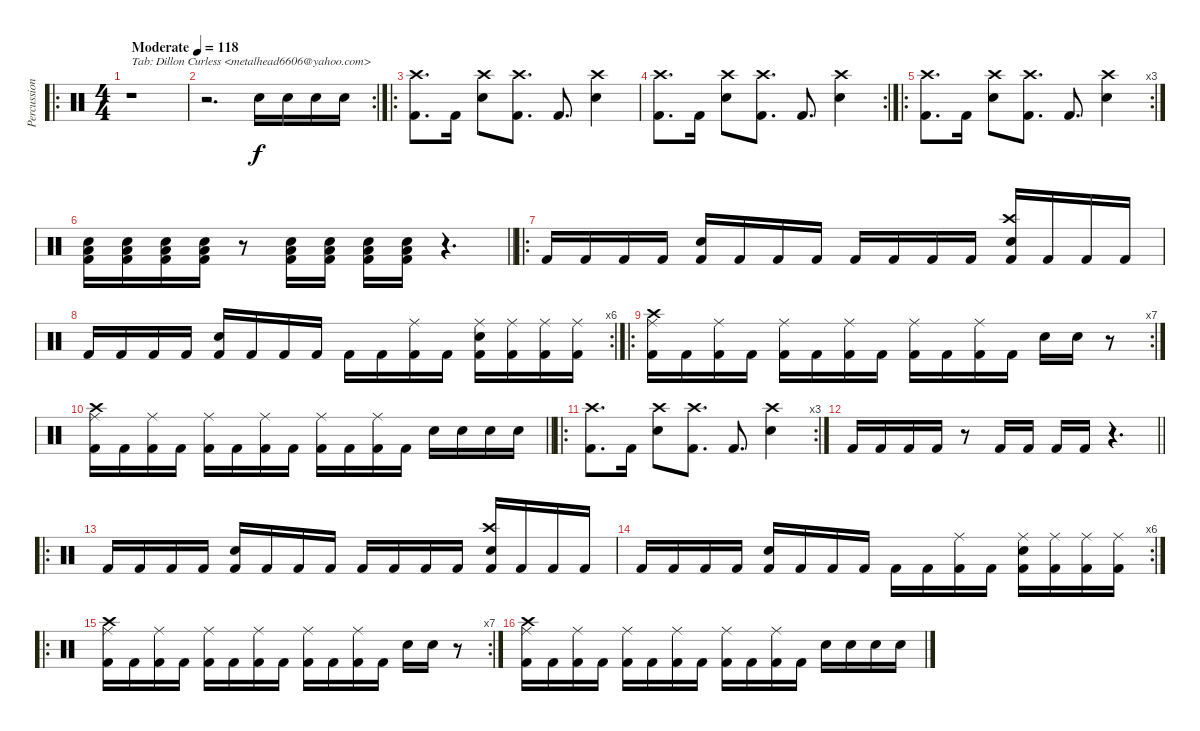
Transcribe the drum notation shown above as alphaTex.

\track ("Percussion" "Percussion") {instrument percussion}
\staff {score}
\articulation defaults
\ro
\ts (4 4)
\tempo (118 "Moderate")
\clef neutral
\ks c
r.1{txt "Tab: Dillon Curless <metalhead6606@yahoo.com>" dy f} |
\rc 2
r.2{d} "Snare (hit) 2".16 "Snare (hit) 2".16 "Snare (hit) 2".16 "Snare (hit) 2".16 |
\ro
("Crash high (hit)" "Kick (hit) 2").8{d} "Kick (hit) 2".16 ("Crash high (hit)" "Snare (hit) 2").8 ("Crash high (hit)" "Kick (hit) 2").8{d} "Kick (hit) 2".8{d} ("Crash high (hit)" "Snare (hit) 2").4 |
\rc 2
("Crash high (hit)" "Kick (hit) 2").8{d} "Kick (hit) 2".16 ("Crash high (hit)" "Snare (hit) 2").8 ("Crash high (hit)" "Kick (hit) 2").8{d} "Kick (hit) 2".8{d} ("Crash high (hit)" "Snare (hit) 2").4 |
\ro
\rc 3
("Crash high (hit)" "Kick (hit) 2").8{d} "Kick (hit) 2".16 ("Crash high (hit)" "Snare (hit) 2").8 ("Crash high (hit)" "Kick (hit) 2").8{d} "Kick (hit) 2".8{d} ("Crash high (hit)" "Snare (hit) 2").4 |
\barLineRight lightlight
("Snare (hit) 2" "Low Tom (hit)" "Kick (hit) 2").16 ("Snare (hit) 2" "Low Tom (hit)" "Kick (hit) 2").16 ("Snare (hit) 2" "Low Tom (hit)" "Kick (hit) 2").16 ("Snare (hit) 2" "Low Tom (hit)" "Kick (hit) 2").16 r.8 ("Snare (hit) 2" "Low Tom (hit)" "Kick (hit) 2").16 ("Snare (hit) 2" "Low Tom (hit)" "Kick (hit) 2").16 ("Snare (hit) 2" "Low Tom (hit)" "Kick (hit) 2").16 ("Snare (hit) 2" "Low Tom (hit)" "Kick (hit) 2").16 r.4{d} |
\ro "Kick (hit) 2".16 "Kick (hit) 2".16 "Kick (hit) 2".16 "Kick (hit) 2".16
("Snare (hit) 2" "Kick (hit) 2").16 "Kick (hit) 2".16 "Kick (hit) 2".16 "Kick (hit) 2".16 "Kick (hit) 2".16 "Kick (hit) 2".16 "Kick (hit) 2".16 "Kick (hit) 2".16 ("Crash high (hit)" "Snare (hit) 2" "Kick (hit) 2").16 "Kick (hit) 2".16 "Kick (hit) 2".16 "Kick (hit) 2".16 |
\rc 6 "Kick (hit) 2".16 "Kick (hit) 2".16 "Kick (hit) 2".16 "Kick (hit) 2".16
("Snare (hit) 2" "Kick (hit) 2").16 "Kick (hit) 2".16 "Kick (hit) 2".16 "Kick (hit) 2".16 "Kick (hit) 2".16 "Kick (hit) 2".16 ("Ride (middle)" "Kick (hit) 2").16 "Kick (hit) 2".16 ("Ride (middle)" "Snare (hit) 2" "Kick (hit) 2").16 ("Ride (middle)" "Kick (hit) 2").16 ("Ride (middle)" "Kick (hit) 2").16 ("Ride (middle)" "Kick (hit) 2").16 |
\ro
\rc 7
("Crash high (hit)" "Ride (middle)" "Kick (hit) 2").16 "Kick (hit) 2".16 ("Ride (middle)" "Kick (hit) 2").16 "Kick (hit) 2".16 ("Ride (middle)" "Kick (hit) 2").16 "Kick (hit) 2".16 ("Ride (middle)" "Kick (hit) 2").16 "Kick (hit) 2".16 ("Ride (middle)" "Kick (hit) 2").16 "Kick (hit) 2".16 ("Ride (middle)" "Kick (hit) 2").16 "Kick (hit) 2".16 "Snare (hit) 2".16 "Snare (hit) 2".16 r.8 |
\barLineRight lightlight
("Crash high (hit)" "Ride (middle)" "Kick (hit) 2").16 "Kick (hit) 2".16 ("Ride (middle)" "Kick (hit) 2").16 "Kick (hit) 2".16 ("Ride (middle)" "Kick (hit) 2").16 "Kick (hit) 2".16 ("Ride (middle)" "Kick (hit) 2").16 "Kick (hit) 2".16 ("Ride (middle)" "Kick (hit) 2").16 "Kick (hit) 2".16 ("Ride (middle)" "Kick (hit) 2").16 "Kick (hit) 2".16 "Snare (hit) 2".16 "Snare (hit) 2".16 "Snare (hit) 2".16 "Snare (hit) 2".16 |
\ro
\rc 3
("Crash high (hit)" "Kick (hit) 2").8{d} "Kick (hit) 2".16 ("Crash high (hit)" "Snare (hit) 2").8 ("Crash high (hit)" "Kick (hit) 2").8{d} "Kick (hit) 2".8{d} ("Crash high (hit)" "Snare (hit) 2").4 |
\barLineRight lightlight "Kick (hit) 2".16 "Kick (hit) 2".16 "Kick (hit) 2".16 "Kick (hit) 2".16
r.8 "Kick (hit) 2".16 "Kick (hit) 2".16 "Kick (hit) 2".16 "Kick (hit) 2".16 r.4{d} |
\ro "Kick (hit) 2".16 "Kick (hit) 2".16 "Kick (hit) 2".16 "Kick (hit) 2".16
("Snare (hit) 2" "Kick (hit) 2").16 "Kick (hit) 2".16 "Kick (hit) 2".16 "Kick (hit) 2".16 "Kick (hit) 2".16 "Kick (hit) 2".16 "Kick (hit) 2".16 "Kick (hit) 2".16 ("Crash high (hit)" "Snare (hit) 2" "Kick (hit) 2").16 "Kick (hit) 2".16 "Kick (hit) 2".16 "Kick (hit) 2".16 |
\rc 6 "Kick (hit) 2".16 "Kick (hit) 2".16 "Kick (hit) 2".16 "Kick (hit) 2".16
("Snare (hit) 2" "Kick (hit) 2").16 "Kick (hit) 2".16 "Kick (hit) 2".16 "Kick (hit) 2".16 "Kick (hit) 2".16 "Kick (hit) 2".16 ("Ride (middle)" "Kick (hit) 2").16 "Kick (hit) 2".16 ("Ride (middle)" "Snare (hit) 2" "Kick (hit) 2").16 ("Ride (middle)" "Kick (hit) 2").16 ("Ride (middle)" "Kick (hit) 2").16 ("Ride (middle)" "Kick (hit) 2").16 |
\ro
\rc 7
("Crash high (hit)" "Ride (middle)" "Kick (hit) 2").16 "Kick (hit) 2".16 ("Ride (middle)" "Kick (hit) 2").16 "Kick (hit) 2".16 ("Ride (middle)" "Kick (hit) 2").16 "Kick (hit) 2".16 ("Ride (middle)" "Kick (hit) 2").16 "Kick (hit) 2".16 ("Ride (middle)" "Kick (hit) 2").16 "Kick (hit) 2".16 ("Ride (middle)" "Kick (hit) 2").16 "Kick (hit) 2".16 "Snare (hit) 2".16 "Snare (hit) 2".16 r.8 |
("Crash high (hit)" "Ride (middle)" "Kick (hit) 2").16 "Kick (hit) 2".16 ("Ride (middle)" "Kick (hit) 2").16 "Kick (hit) 2".16 ("Ride (middle)" "Kick (hit) 2").16 "Kick (hit) 2".16 ("Ride (middle)" "Kick (hit) 2").16 "Kick (hit) 2".16 ("Ride (middle)" "Kick (hit) 2").16 "Kick (hit) 2".16 ("Ride (middle)" "Kick (hit) 2").16 "Kick (hit) 2".16 "Snare (hit) 2".16 "Snare (hit) 2".16 "Snare (hit) 2".16 "Snare (hit) 2".16
